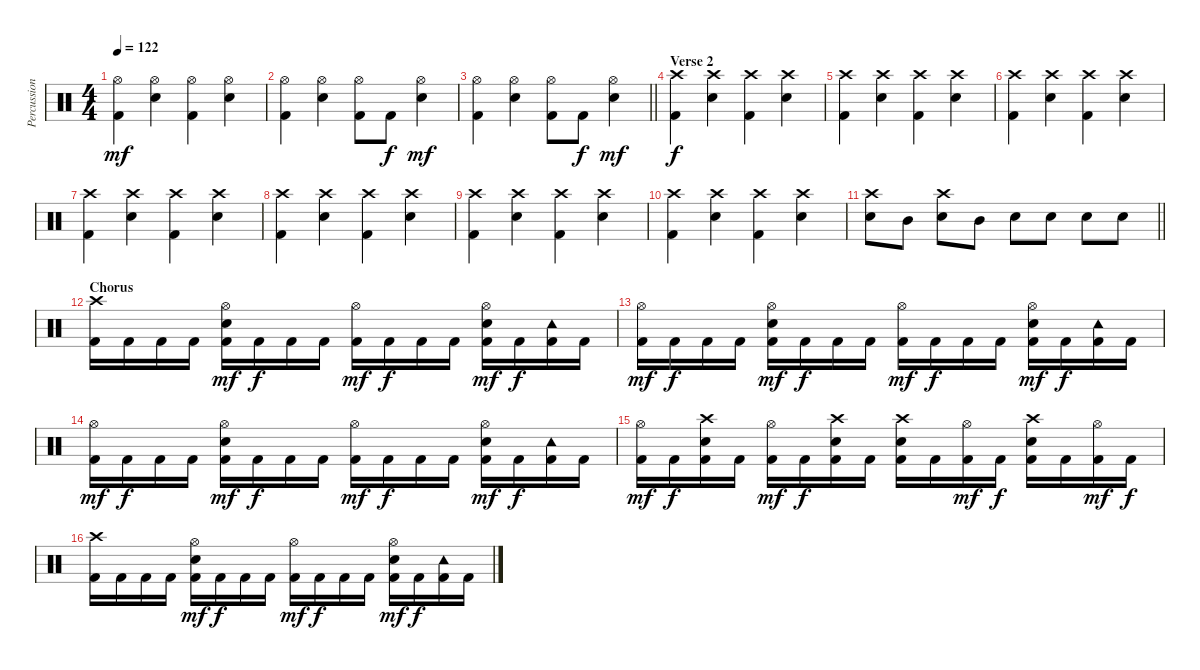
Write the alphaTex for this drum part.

\track ("Percussion" "Percussion") {instrument percussion}
\staff {score}
\articulation defaults
\ts (4 4)
\tempo 122
\clef neutral
\ks c
("Hi-Hat (open)" "Kick (hit) 2").4{dy mf} ("Hi-Hat (open)" "Electric Snare (hit)").4 ("Hi-Hat (open)" "Kick (hit) 2").4 ("Hi-Hat (open)" "Electric Snare (hit)").4 |
("Hi-Hat (open)" "Kick (hit) 2").4 ("Hi-Hat (open)" "Electric Snare (hit)").4 ("Hi-Hat (open)" "Kick (hit) 2").8 "Kick (hit) 2".8{dy f} ("Hi-Hat (open)" "Electric Snare (hit)").4{dy mf} |
\barLineRight lightlight
("Hi-Hat (open)" "Kick (hit) 2").4 ("Hi-Hat (open)" "Electric Snare (hit)").4 ("Hi-Hat (open)" "Kick (hit) 2").8 "Kick (hit) 2".8{dy f} ("Hi-Hat (open)" "Electric Snare (hit)").4{dy mf} |
\section ("" "Verse 2")
("Crash high (hit)" "Kick (hit) 2").4{dy f} ("Crash high (hit)" "Electric Snare (hit)").4 ("Crash high (hit)" "Kick (hit) 2").4 ("Crash high (hit)" "Electric Snare (hit)").4 |
("Crash high (hit)" "Kick (hit) 2").4 ("Crash high (hit)" "Electric Snare (hit)").4 ("Crash high (hit)" "Kick (hit) 2").4 ("Crash high (hit)" "Electric Snare (hit)").4 |
("Crash high (hit)" "Kick (hit) 2").4 ("Crash high (hit)" "Electric Snare (hit)").4 ("Crash high (hit)" "Kick (hit) 2").4 ("Crash high (hit)" "Electric Snare (hit)").4 |
("Crash high (hit)" "Kick (hit) 2").4 ("Crash high (hit)" "Electric Snare (hit)").4 ("Crash high (hit)" "Kick (hit) 2").4 ("Crash high (hit)" "Electric Snare (hit)").4 |
("Crash high (hit)" "Kick (hit) 2").4 ("Crash high (hit)" "Electric Snare (hit)").4 ("Crash high (hit)" "Kick (hit) 2").4 ("Crash high (hit)" "Electric Snare (hit)").4 |
("Crash high (hit)" "Kick (hit) 2").4 ("Crash high (hit)" "Electric Snare (hit)").4 ("Crash high (hit)" "Kick (hit) 2").4 ("Crash high (hit)" "Electric Snare (hit)").4 |
("Crash high (hit)" "Kick (hit) 2").4 ("Crash high (hit)" "Electric Snare (hit)").4 ("Crash high (hit)" "Kick (hit) 2").4 ("Crash high (hit)" "Electric Snare (hit)").4 |
\barLineRight lightlight
("Crash high (hit)" "Electric Snare (hit)").8 "Mid Tom (hit)".8 ("Crash high (hit)" "Electric Snare (hit)").8 "Mid Tom (hit)".8 "Electric Snare (hit)".8 "Electric Snare (hit)".8 "Electric Snare (hit)".8 "Electric Snare (hit)".8 |
\section ("" "Chorus")
("Crash high (hit)" "Kick (hit) 2").16 "Kick (hit) 2".16 "Kick (hit) 2".16 "Kick (hit) 2".16 ("Hi-Hat (open)" "Electric Snare (hit)" "Kick (hit) 2").16{dy mf} "Kick (hit) 2".16{dy f} "Kick (hit) 2".16 "Kick (hit) 2".16 ("Hi-Hat (open)" "Kick (hit) 2").16{dy mf} "Kick (hit) 2".16{dy f} "Kick (hit) 2".16 "Kick (hit) 2".16 ("Hi-Hat (open)" "Electric Snare (hit)" "Kick (hit) 2").16{dy mf} "Kick (hit) 2".16{dy f} ("Tambourine (hit)" "Kick (hit) 2").16 "Kick (hit) 2".16 |
("Hi-Hat (open)" "Kick (hit) 2").16{dy mf} "Kick (hit) 2".16{dy f} "Kick (hit) 2".16 "Kick (hit) 2".16 ("Hi-Hat (open)" "Electric Snare (hit)" "Kick (hit) 2").16{dy mf} "Kick (hit) 2".16{dy f} "Kick (hit) 2".16 "Kick (hit) 2".16 ("Hi-Hat (open)" "Kick (hit) 2").16{dy mf} "Kick (hit) 2".16{dy f} "Kick (hit) 2".16 "Kick (hit) 2".16 ("Hi-Hat (open)" "Electric Snare (hit)" "Kick (hit) 2").16{dy mf} "Kick (hit) 2".16{dy f} ("Tambourine (hit)" "Kick (hit) 2").16 "Kick (hit) 2".16 |
("Hi-Hat (open)" "Kick (hit) 2").16{dy mf} "Kick (hit) 2".16{dy f} "Kick (hit) 2".16 "Kick (hit) 2".16 ("Hi-Hat (open)" "Electric Snare (hit)" "Kick (hit) 2").16{dy mf} "Kick (hit) 2".16{dy f} "Kick (hit) 2".16 "Kick (hit) 2".16 ("Hi-Hat (open)" "Kick (hit) 2").16{dy mf} "Kick (hit) 2".16{dy f} "Kick (hit) 2".16 "Kick (hit) 2".16 ("Hi-Hat (open)" "Electric Snare (hit)" "Kick (hit) 2").16{dy mf} "Kick (hit) 2".16{dy f} ("Tambourine (hit)" "Kick (hit) 2").16 "Kick (hit) 2".16 |
("Hi-Hat (open)" "Kick (hit) 2").16{dy mf} "Kick (hit) 2".16{dy f} ("Crash high (hit)" "Electric Snare (hit)" "Kick (hit) 2").16 "Kick (hit) 2".16 ("Hi-Hat (open)" "Kick (hit) 2").16{dy mf} "Kick (hit) 2".16{dy f} ("Crash high (hit)" "Electric Snare (hit)" "Kick (hit) 2").16 "Kick (hit) 2".16 ("Crash high (hit)" "Electric Snare (hit)" "Kick (hit) 2").16 "Kick (hit) 2".16 ("Hi-Hat (open)" "Kick (hit) 2").16{dy mf} "Kick (hit) 2".16{dy f} ("Crash high (hit)" "Electric Snare (hit)" "Kick (hit) 2").16 "Kick (hit) 2".16 ("Hi-Hat (open)" "Kick (hit) 2").16{dy mf} "Kick (hit) 2".16{dy f} |
("Crash high (hit)" "Kick (hit) 2").16 "Kick (hit) 2".16 "Kick (hit) 2".16 "Kick (hit) 2".16 ("Hi-Hat (open)" "Electric Snare (hit)" "Kick (hit) 2").16{dy mf} "Kick (hit) 2".16{dy f} "Kick (hit) 2".16 "Kick (hit) 2".16 ("Hi-Hat (open)" "Kick (hit) 2").16{dy mf} "Kick (hit) 2".16{dy f} "Kick (hit) 2".16 "Kick (hit) 2".16 ("Hi-Hat (open)" "Electric Snare (hit)" "Kick (hit) 2").16{dy mf} "Kick (hit) 2".16{dy f} ("Tambourine (hit)" "Kick (hit) 2").16 "Kick (hit) 2".16
